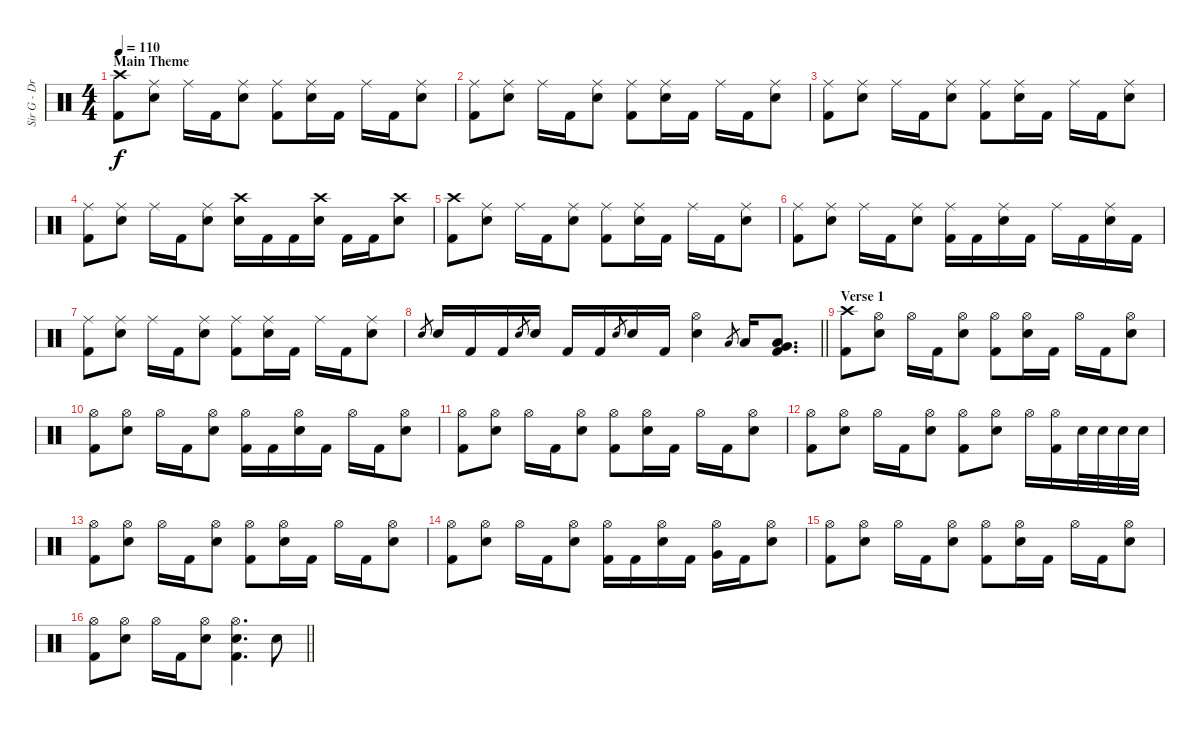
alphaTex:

\track ("Sir G - Drums" "Sir G - Dr") {instrument percussion}
\staff {score}
\articulation defaults
\ts (4 4)
\section ("" "Main Theme")
\tempo 110
\clef neutral
\ks c
("Crash high (hit)" "Kick (hit) 2").8{dy f} ("Ride (middle)" "Electric Snare (hit)").8 "Ride (middle)".16 "Kick (hit) 2".16 ("Ride (middle)" "Electric Snare (hit)").8 ("Ride (middle)" "Kick (hit) 2").8 ("Ride (middle)" "Electric Snare (hit)").16 "Kick (hit) 2".16 "Ride (middle)".16 "Kick (hit) 2".16 ("Ride (middle)" "Electric Snare (hit)").8 |
("Ride (middle)" "Kick (hit) 2").8 ("Ride (middle)" "Electric Snare (hit)").8 "Ride (middle)".16 "Kick (hit) 2".16 ("Ride (middle)" "Electric Snare (hit)").8 ("Ride (middle)" "Kick (hit) 2").8 ("Ride (middle)" "Electric Snare (hit)").16 "Kick (hit) 2".16 "Ride (middle)".16 "Kick (hit) 2".16 ("Ride (middle)" "Electric Snare (hit)").8 |
("Ride (middle)" "Kick (hit) 2").8 ("Ride (middle)" "Electric Snare (hit)").8 "Ride (middle)".16 "Kick (hit) 2".16 ("Ride (middle)" "Electric Snare (hit)").8 ("Ride (middle)" "Kick (hit) 2").8 ("Ride (middle)" "Electric Snare (hit)").16 "Kick (hit) 2".16 "Ride (middle)".16 "Kick (hit) 2".16 ("Ride (middle)" "Electric Snare (hit)").8 |
("Ride (middle)" "Kick (hit) 2").8 ("Ride (middle)" "Electric Snare (hit)").8 "Ride (middle)".16 "Kick (hit) 2".16 ("Ride (middle)" "Electric Snare (hit)").8 ("Crash high (hit)" "Electric Snare (hit)").16 "Kick (hit) 2".16 "Kick (hit) 2".16 ("Crash high (hit)" "Electric Snare (hit)").16 "Kick (hit) 2".16 "Kick (hit) 2".16 ("Crash high (hit)" "Electric Snare (hit)").8 |
("Crash high (hit)" "Kick (hit) 2").8 ("Ride (middle)" "Electric Snare (hit)").8 "Ride (middle)".16 "Kick (hit) 2".16 ("Ride (middle)" "Electric Snare (hit)").8 ("Ride (middle)" "Kick (hit) 2").8 ("Ride (middle)" "Electric Snare (hit)").16 "Kick (hit) 2".16 "Ride (middle)".16 "Kick (hit) 2".16 ("Ride (middle)" "Electric Snare (hit)").8 |
("Ride (middle)" "Kick (hit) 2").8 ("Ride (middle)" "Electric Snare (hit)").8 "Ride (middle)".16 "Kick (hit) 2".16 ("Ride (middle)" "Electric Snare (hit)").8 ("Ride (middle)" "Kick (hit) 2").16 "Kick (hit) 2".16 ("Ride (middle)" "Electric Snare (hit)").16 "Kick (hit) 2".16 "Ride (middle)".16 "Kick (hit) 2".16 ("Ride (middle)" "Electric Snare (hit)").16 "Kick (hit) 2".16 |
("Ride (middle)" "Kick (hit) 2").8 ("Ride (middle)" "Electric Snare (hit)").8 "Ride (middle)".16 "Kick (hit) 2".16 ("Ride (middle)" "Electric Snare (hit)").8 ("Ride (middle)" "Kick (hit) 2").8 ("Ride (middle)" "Electric Snare (hit)").16 "Kick (hit) 2".16 "Ride (middle)".16 "Kick (hit) 2".16 ("Ride (middle)" "Electric Snare (hit)").8 |
\barLineRight lightlight "Electric Snare (hit)".8{gr} "Electric Snare (hit)".16 "Kick (hit) 2".16 "Kick (hit) 2".16 "Electric Snare (hit)".8{gr} "Electric Snare (hit)".16 "Kick (hit) 2".16 "Kick (hit) 2".16 "Electric Snare (hit)".8{gr} "Electric Snare (hit)".16 "Kick (hit) 2".16
("Hi-Hat (open)" "Electric Snare (hit)").4 "Low Tom (hit)".8{gr} "Low Tom (hit)".16 ("Very Low Tom (hit)" "Low Floor Tom (hit)" "Kick (hit) 2").8{d} |
\section ("" "Verse 1")
("Crash high (hit)" "Kick (hit) 2").8 ("Hi-Hat (open)" "Electric Snare (hit)").8 "Hi-Hat (open)".16 "Kick (hit) 2".16 ("Hi-Hat (open)" "Electric Snare (hit)").8 ("Hi-Hat (open)" "Kick (hit) 2").8 ("Hi-Hat (open)" "Electric Snare (hit)").16 "Kick (hit) 2".16 "Hi-Hat (open)".16 "Kick (hit) 2".16 ("Hi-Hat (open)" "Electric Snare (hit)").8 |
("Hi-Hat (open)" "Kick (hit) 2").8 ("Hi-Hat (open)" "Electric Snare (hit)").8 "Hi-Hat (open)".16 "Kick (hit) 2".16 ("Hi-Hat (open)" "Electric Snare (hit)").8 ("Hi-Hat (open)" "Kick (hit) 2").16 "Kick (hit) 2".16 ("Hi-Hat (open)" "Electric Snare (hit)").16 "Kick (hit) 2".16 "Hi-Hat (open)".16 "Kick (hit) 2".16 ("Hi-Hat (open)" "Electric Snare (hit)").8 |
("Hi-Hat (open)" "Kick (hit) 2").8 ("Hi-Hat (open)" "Electric Snare (hit)").8 "Hi-Hat (open)".16 "Kick (hit) 2".16 ("Hi-Hat (open)" "Electric Snare (hit)").8 ("Hi-Hat (open)" "Kick (hit) 2").8 ("Hi-Hat (open)" "Electric Snare (hit)").16 "Kick (hit) 2".16 "Hi-Hat (open)".16 "Kick (hit) 2".16 ("Hi-Hat (open)" "Electric Snare (hit)").8 |
("Hi-Hat (open)" "Kick (hit) 2").8 ("Hi-Hat (open)" "Electric Snare (hit)").8 "Hi-Hat (open)".16 "Kick (hit) 2".16 ("Hi-Hat (open)" "Electric Snare (hit)").8 ("Hi-Hat (open)" "Kick (hit) 2").8 ("Hi-Hat (open)" "Electric Snare (hit)").8 "Hi-Hat (open)".16 ("Hi-Hat (open)" "Kick (hit) 2").16 "Electric Snare (hit)".32 "Electric Snare (hit)".32 "Electric Snare (hit)".32 "Electric Snare (hit)".32 |
("Hi-Hat (open)" "Kick (hit) 2").8 ("Hi-Hat (open)" "Electric Snare (hit)").8 "Hi-Hat (open)".16 "Kick (hit) 2".16 ("Hi-Hat (open)" "Electric Snare (hit)").8 ("Hi-Hat (open)" "Kick (hit) 2").8 ("Hi-Hat (open)" "Electric Snare (hit)").16 "Kick (hit) 2".16 "Hi-Hat (open)".16 "Kick (hit) 2".16 ("Hi-Hat (open)" "Electric Snare (hit)").8 |
("Hi-Hat (open)" "Kick (hit) 2").8 ("Hi-Hat (open)" "Electric Snare (hit)").8 "Hi-Hat (open)".16 "Kick (hit) 2".16 ("Hi-Hat (open)" "Electric Snare (hit)").8 ("Hi-Hat (open)" "Kick (hit) 2").16 "Kick (hit) 2".16 ("Hi-Hat (open)" "Electric Snare (hit)").16 "Kick (hit) 2".16 ("Hi-Hat (open)" "Very Low Tom (hit)").16 "Kick (hit) 2".16 ("Hi-Hat (open)" "Electric Snare (hit)").8 |
("Hi-Hat (open)" "Kick (hit) 2").8 ("Hi-Hat (open)" "Electric Snare (hit)").8 "Hi-Hat (open)".16 "Kick (hit) 2".16 ("Hi-Hat (open)" "Electric Snare (hit)").8 ("Hi-Hat (open)" "Kick (hit) 2").8 ("Hi-Hat (open)" "Electric Snare (hit)").16 "Kick (hit) 2".16 "Hi-Hat (open)".16 "Kick (hit) 2".16 ("Hi-Hat (open)" "Electric Snare (hit)").8 |
\barLineRight lightlight
("Hi-Hat (open)" "Kick (hit) 2").8 ("Hi-Hat (open)" "Electric Snare (hit)").8 "Hi-Hat (open)".16 "Kick (hit) 2".16 ("Hi-Hat (open)" "Electric Snare (hit)").8 ("Hi-Hat (open)" "Electric Snare (hit)" "Kick (hit) 2").4{d} "Electric Snare (hit)".8
